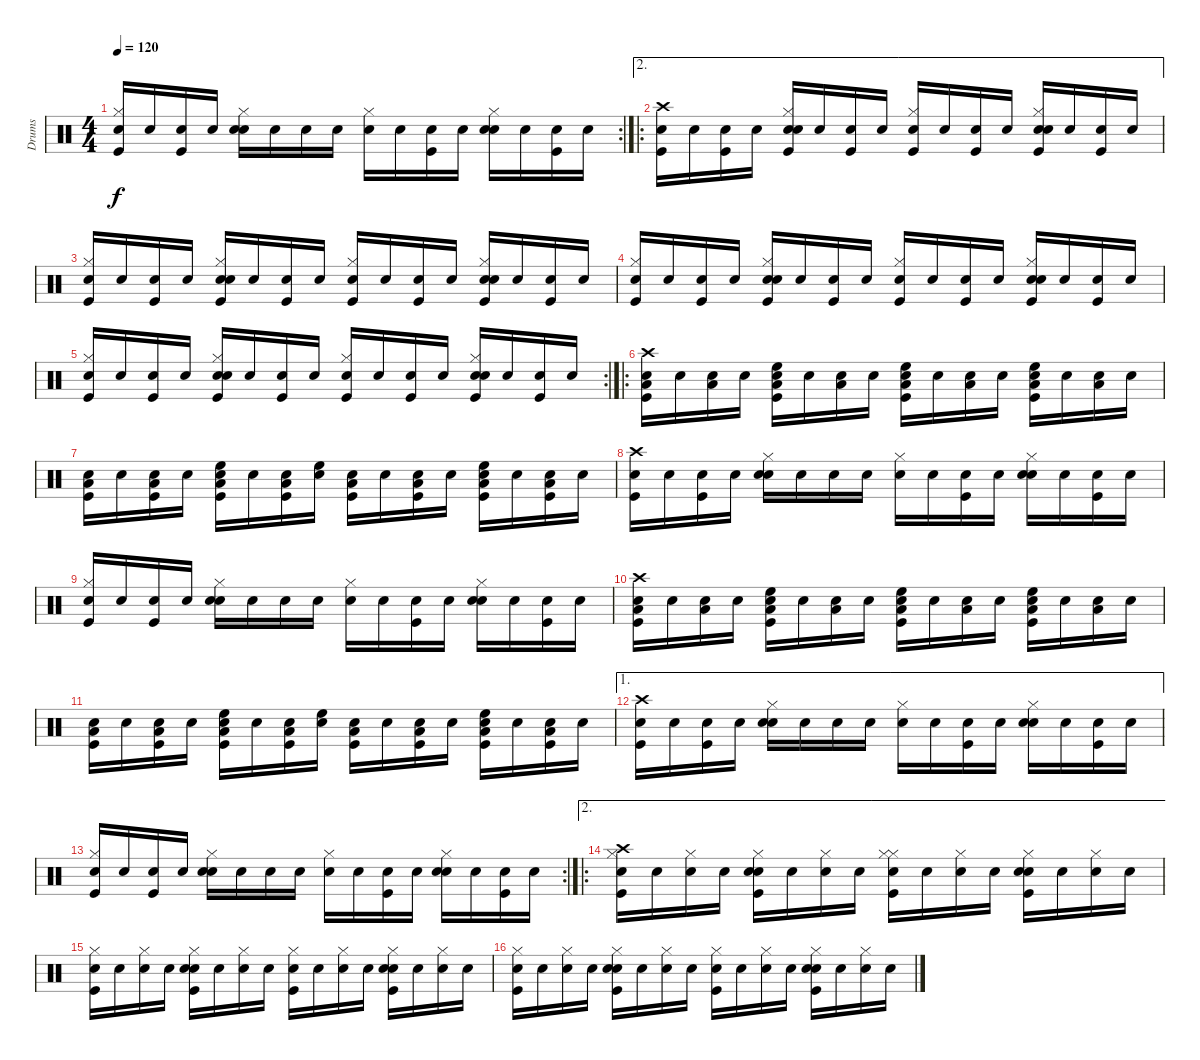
\track ("Drums" "Drums") {instrument percussion}
\staff {score}
\articulation defaults
\rc 2
\ts (4 4)
\tempo 120
\clef neutral
\ks c
("Snare (hit)" "Hi-Hat (closed)" "Kick (hit)").16{dy f} "Snare (hit)".16 ("Snare (hit)" "Kick (hit)").16 "Snare (hit)".16 ("Snare (hit)" "Snare (hit) 2" "Hi-Hat (closed)").16 "Snare (hit)".16 "Snare (hit)".16 "Snare (hit)".16 ("Snare (hit)" "Hi-Hat (closed)").16 "Snare (hit)".16 ("Snare (hit)" "Kick (hit)").16 "Snare (hit)".16 ("Snare (hit)" "Snare (hit) 2" "Hi-Hat (closed)").16 "Snare (hit)".16 ("Snare (hit)" "Kick (hit)").16 "Snare (hit)".16 |
\ae 2
\ro
("Snare (hit)" "Crash high (hit)" "Kick (hit)").16 "Snare (hit)".16 ("Snare (hit)" "Kick (hit)").16 "Snare (hit)".16 ("Snare (hit)" "Snare (hit) 2" "Hi-Hat (closed)" "Kick (hit)").16 "Snare (hit)".16 ("Snare (hit)" "Kick (hit)").16 "Snare (hit)".16 ("Snare (hit)" "Hi-Hat (closed)" "Kick (hit)").16 "Snare (hit)".16 ("Snare (hit)" "Kick (hit)").16 "Snare (hit)".16 ("Snare (hit)" "Snare (hit) 2" "Hi-Hat (closed)" "Kick (hit)").16 "Snare (hit)".16 ("Snare (hit)" "Kick (hit)").16 "Snare (hit)".16 |
("Snare (hit)" "Hi-Hat (closed)" "Kick (hit)").16 "Snare (hit)".16 ("Snare (hit)" "Kick (hit)").16 "Snare (hit)".16 ("Snare (hit)" "Snare (hit) 2" "Hi-Hat (closed)" "Kick (hit)").16 "Snare (hit)".16 ("Snare (hit)" "Kick (hit)").16 "Snare (hit)".16 ("Snare (hit)" "Hi-Hat (closed)" "Kick (hit)").16 "Snare (hit)".16 ("Snare (hit)" "Kick (hit)").16 "Snare (hit)".16 ("Snare (hit)" "Snare (hit) 2" "Hi-Hat (closed)" "Kick (hit)").16 "Snare (hit)".16 ("Snare (hit)" "Kick (hit)").16 "Snare (hit)".16 |
("Snare (hit)" "Hi-Hat (closed)" "Kick (hit)").16 "Snare (hit)".16 ("Snare (hit)" "Kick (hit)").16 "Snare (hit)".16 ("Snare (hit)" "Snare (hit) 2" "Hi-Hat (closed)" "Kick (hit)").16 "Snare (hit)".16 ("Snare (hit)" "Kick (hit)").16 "Snare (hit)".16 ("Snare (hit)" "Hi-Hat (closed)" "Kick (hit)").16 "Snare (hit)".16 ("Snare (hit)" "Kick (hit)").16 "Snare (hit)".16 ("Snare (hit)" "Snare (hit) 2" "Hi-Hat (closed)" "Kick (hit)").16 "Snare (hit)".16 ("Snare (hit)" "Kick (hit)").16 "Snare (hit)".16 |
\rc 2
("Snare (hit)" "Hi-Hat (closed)" "Kick (hit)").16 "Snare (hit)".16 ("Snare (hit)" "Kick (hit)").16 "Snare (hit)".16 ("Snare (hit)" "Snare (hit) 2" "Hi-Hat (closed)" "Kick (hit)").16 "Snare (hit)".16 ("Snare (hit)" "Kick (hit)").16 "Snare (hit)".16 ("Snare (hit)" "Hi-Hat (closed)" "Kick (hit)").16 "Snare (hit)".16 ("Snare (hit)" "Kick (hit)").16 "Snare (hit)".16 ("Snare (hit)" "Snare (hit) 2" "Hi-Hat (closed)" "Kick (hit)").16 "Snare (hit)".16 ("Snare (hit)" "Kick (hit)").16 "Snare (hit)".16 |
\ro
("Snare (hit)" "Crash high (hit)" "Low Floor Tom (hit)" "Kick (hit)").16 "Snare (hit)".16 ("Snare (hit)" "Low Floor Tom (hit)").16 "Snare (hit)".16 ("Snare (hit)" "High Floor Tom (hit)" "Low Floor Tom (hit)" "Kick (hit)").16 "Snare (hit)".16 ("Snare (hit)" "Low Floor Tom (hit)").16 "Snare (hit)".16 ("Snare (hit)" "High Floor Tom (hit)" "Low Floor Tom (hit)" "Kick (hit)").16 "Snare (hit)".16 ("Snare (hit)" "Low Floor Tom (hit)").16 "Snare (hit)".16 ("Snare (hit)" "High Floor Tom (hit)" "Low Floor Tom (hit)" "Kick (hit)").16 "Snare (hit)".16 ("Snare (hit)" "Low Floor Tom (hit)").16 "Snare (hit)".16 |
("Snare (hit)" "Low Floor Tom (hit)" "Kick (hit)").16 "Snare (hit)".16 ("Snare (hit)" "Low Floor Tom (hit)" "Kick (hit)").16 "Snare (hit)".16 ("Snare (hit)" "High Floor Tom (hit)" "Low Floor Tom (hit)" "Kick (hit)").16 "Snare (hit)".16 ("Snare (hit)" "Low Floor Tom (hit)" "Kick (hit)").16 ("Snare (hit)" "High Floor Tom (hit)").16 ("Snare (hit)" "Low Floor Tom (hit)" "Kick (hit)").16 "Snare (hit)".16 ("Snare (hit)" "Low Floor Tom (hit)" "Kick (hit)").16 "Snare (hit)".16 ("Snare (hit)" "High Floor Tom (hit)" "Low Floor Tom (hit)" "Kick (hit)").16 "Snare (hit)".16 ("Snare (hit)" "Low Floor Tom (hit)" "Kick (hit)").16 "Snare (hit)".16 |
("Snare (hit)" "Crash high (hit)" "Kick (hit)").16 "Snare (hit)".16 ("Snare (hit)" "Kick (hit)").16 "Snare (hit)".16 ("Snare (hit)" "Snare (hit) 2" "Hi-Hat (closed)").16 "Snare (hit)".16 "Snare (hit)".16 "Snare (hit)".16 ("Snare (hit)" "Hi-Hat (closed)").16 "Snare (hit)".16 ("Snare (hit)" "Kick (hit)").16 "Snare (hit)".16 ("Snare (hit)" "Snare (hit) 2" "Hi-Hat (closed)").16 "Snare (hit)".16 ("Snare (hit)" "Kick (hit)").16 "Snare (hit)".16 |
("Snare (hit)" "Hi-Hat (closed)" "Kick (hit)").16 "Snare (hit)".16 ("Snare (hit)" "Kick (hit)").16 "Snare (hit)".16 ("Snare (hit)" "Snare (hit) 2" "Hi-Hat (closed)").16 "Snare (hit)".16 "Snare (hit)".16 "Snare (hit)".16 ("Snare (hit)" "Hi-Hat (closed)").16 "Snare (hit)".16 ("Snare (hit)" "Kick (hit)").16 "Snare (hit)".16 ("Snare (hit)" "Snare (hit) 2" "Hi-Hat (closed)").16 "Snare (hit)".16 ("Snare (hit)" "Kick (hit)").16 "Snare (hit)".16 |
("Snare (hit)" "Crash high (hit)" "Low Floor Tom (hit)" "Kick (hit)").16 "Snare (hit)".16 ("Snare (hit)" "Low Floor Tom (hit)").16 "Snare (hit)".16 ("Snare (hit)" "High Floor Tom (hit)" "Low Floor Tom (hit)" "Kick (hit)").16 "Snare (hit)".16 ("Snare (hit)" "Low Floor Tom (hit)").16 "Snare (hit)".16 ("Snare (hit)" "High Floor Tom (hit)" "Low Floor Tom (hit)" "Kick (hit)").16 "Snare (hit)".16 ("Snare (hit)" "Low Floor Tom (hit)").16 "Snare (hit)".16 ("Snare (hit)" "High Floor Tom (hit)" "Low Floor Tom (hit)" "Kick (hit)").16 "Snare (hit)".16 ("Snare (hit)" "Low Floor Tom (hit)").16 "Snare (hit)".16 |
("Snare (hit)" "Low Floor Tom (hit)" "Kick (hit)").16 "Snare (hit)".16 ("Snare (hit)" "Low Floor Tom (hit)" "Kick (hit)").16 "Snare (hit)".16 ("Snare (hit)" "High Floor Tom (hit)" "Low Floor Tom (hit)" "Kick (hit)").16 "Snare (hit)".16 ("Snare (hit)" "Low Floor Tom (hit)" "Kick (hit)").16 ("Snare (hit)" "High Floor Tom (hit)").16 ("Snare (hit)" "Low Floor Tom (hit)" "Kick (hit)").16 "Snare (hit)".16 ("Snare (hit)" "Low Floor Tom (hit)" "Kick (hit)").16 "Snare (hit)".16 ("Snare (hit)" "High Floor Tom (hit)" "Low Floor Tom (hit)" "Kick (hit)").16 "Snare (hit)".16 ("Snare (hit)" "Low Floor Tom (hit)" "Kick (hit)").16 "Snare (hit)".16 |
\ae 1
("Snare (hit)" "Crash high (hit)" "Kick (hit)").16 "Snare (hit)".16 ("Snare (hit)" "Kick (hit)").16 "Snare (hit)".16 ("Snare (hit)" "Snare (hit) 2" "Hi-Hat (closed)").16 "Snare (hit)".16 "Snare (hit)".16 "Snare (hit)".16 ("Snare (hit)" "Hi-Hat (closed)").16 "Snare (hit)".16 ("Snare (hit)" "Kick (hit)").16 "Snare (hit)".16 ("Snare (hit)" "Snare (hit) 2" "Hi-Hat (closed)").16 "Snare (hit)".16 ("Snare (hit)" "Kick (hit)").16 "Snare (hit)".16 |
\rc 2
("Snare (hit)" "Hi-Hat (closed)" "Kick (hit)").16 "Snare (hit)".16 ("Snare (hit)" "Kick (hit)").16 "Snare (hit)".16 ("Snare (hit)" "Snare (hit) 2" "Hi-Hat (closed)").16 "Snare (hit)".16 "Snare (hit)".16 "Snare (hit)".16 ("Snare (hit)" "Hi-Hat (closed)").16 "Snare (hit)".16 ("Snare (hit)" "Kick (hit)").16 "Snare (hit)".16 ("Snare (hit)" "Snare (hit) 2" "Hi-Hat (closed)").16 "Snare (hit)".16 ("Snare (hit)" "Kick (hit)").16 "Snare (hit)".16 |
\ae 2
\ro
("Snare (hit)" "Hi-Hat (closed)" "Crash high (hit)" "Kick (hit)").16 "Snare (hit)".16 ("Snare (hit)" "Hi-Hat (closed)").16 "Snare (hit)".16 ("Snare (hit)" "Snare (hit) 2" "Hi-Hat (closed)" "Kick (hit)").16 "Snare (hit)".16 ("Snare (hit)" "Hi-Hat (closed)").16 "Snare (hit)".16 ("Snare (hit)" "Hi-Hat (closed)" "Hi-Hat (closed)" "Kick (hit)").16 "Snare (hit)".16 ("Snare (hit)" "Hi-Hat (closed)").16 "Snare (hit)".16 ("Snare (hit)" "Snare (hit) 2" "Hi-Hat (closed)" "Kick (hit)").16 "Snare (hit)".16 ("Snare (hit)" "Hi-Hat (closed)").16 "Snare (hit)".16 |
("Snare (hit)" "Hi-Hat (closed)" "Kick (hit)").16 "Snare (hit)".16 ("Snare (hit)" "Hi-Hat (closed)").16 "Snare (hit)".16 ("Snare (hit)" "Snare (hit) 2" "Hi-Hat (closed)" "Kick (hit)").16 "Snare (hit)".16 ("Snare (hit)" "Hi-Hat (closed)").16 "Snare (hit)".16 ("Snare (hit)" "Hi-Hat (closed)" "Kick (hit)").16 "Snare (hit)".16 ("Snare (hit)" "Hi-Hat (closed)").16 "Snare (hit)".16 ("Snare (hit)" "Snare (hit) 2" "Hi-Hat (closed)" "Kick (hit)").16 "Snare (hit)".16 ("Snare (hit)" "Hi-Hat (closed)").16 "Snare (hit)".16 |
("Snare (hit)" "Hi-Hat (closed)" "Kick (hit)").16 "Snare (hit)".16 ("Snare (hit)" "Hi-Hat (closed)").16 "Snare (hit)".16 ("Snare (hit)" "Snare (hit) 2" "Hi-Hat (closed)" "Kick (hit)").16 "Snare (hit)".16 ("Snare (hit)" "Hi-Hat (closed)").16 "Snare (hit)".16 ("Snare (hit)" "Hi-Hat (closed)" "Kick (hit)").16 "Snare (hit)".16 ("Snare (hit)" "Hi-Hat (closed)").16 "Snare (hit)".16 ("Snare (hit)" "Snare (hit) 2" "Hi-Hat (closed)" "Kick (hit)").16 "Snare (hit)".16 ("Snare (hit)" "Hi-Hat (closed)").16 "Snare (hit)".16
